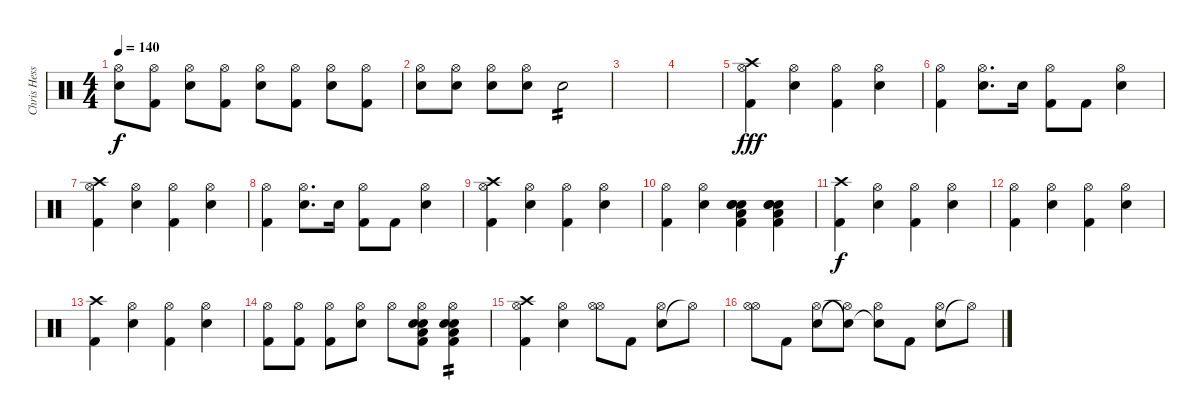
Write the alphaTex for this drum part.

\track ("Chris Hesse" "Chris Hess") {instrument percussion}
\staff {score}
\articulation defaults
\ts (4 4)
\tempo 140
\clef neutral
\ks c
("Electric Snare (hit)" "Hi-Hat (open)").8{dy f} ("Kick (hit) 2" "Hi-Hat (open)").8 ("Electric Snare (hit)" "Hi-Hat (open)").8 ("Kick (hit) 2" "Hi-Hat (open)").8 ("Electric Snare (hit)" "Hi-Hat (open)").8 ("Kick (hit) 2" "Hi-Hat (open)").8 ("Electric Snare (hit)" "Hi-Hat (open)").8 ("Kick (hit) 2" "Hi-Hat (open)").8 |
("Electric Snare (hit)" "Hi-Hat (open)").8 ("Electric Snare (hit)" "Hi-Hat (open)").8 ("Electric Snare (hit)" "Hi-Hat (open)").8 ("Electric Snare (hit)" "Hi-Hat (open)").8 "Electric Snare (hit)".2{tp 2} |
|
|
("Kick (hit) 2" "Hi-Hat (open)" "Crash high (hit)").4{dy fff} ("Electric Snare (hit)" "Hi-Hat (open)").4 ("Kick (hit) 2" "Hi-Hat (open)").4 ("Electric Snare (hit)" "Hi-Hat (open)").4 |
("Kick (hit) 2" "Hi-Hat (open)").4 ("Electric Snare (hit)" "Hi-Hat (open)").8{d} "Electric Snare (hit)".16 ("Kick (hit) 2" "Hi-Hat (open)").8 "Kick (hit) 2".8 ("Electric Snare (hit)" "Hi-Hat (open)").4 |
("Kick (hit) 2" "Hi-Hat (open)" "Crash high (hit)").4 ("Electric Snare (hit)" "Hi-Hat (open)").4 ("Kick (hit) 2" "Hi-Hat (open)").4 ("Electric Snare (hit)" "Hi-Hat (open)").4 |
("Kick (hit) 2" "Hi-Hat (open)").4 ("Electric Snare (hit)" "Hi-Hat (open)").8{d} "Electric Snare (hit)".16 ("Kick (hit) 2" "Hi-Hat (open)").8 "Kick (hit) 2".8 ("Electric Snare (hit)" "Hi-Hat (open)").4 |
("Kick (hit) 2" "Hi-Hat (open)" "Crash high (hit)").4 ("Electric Snare (hit)" "Hi-Hat (open)").4 ("Kick (hit) 2" "Hi-Hat (open)").4 ("Electric Snare (hit)" "Hi-Hat (open)").4 |
("Kick (hit) 2" "Hi-Hat (open)").4 ("Electric Snare (hit)" "Hi-Hat (open)").4 ("Low Floor Tom (hit)" "Electric Snare (hit)" "Electric Snare (hit)" "Electric Snare (hit)" "Kick (hit) 2").4 ("Low Floor Tom (hit)" "Electric Snare (hit)" "Electric Snare (hit)" "Electric Snare (hit)" "Kick (hit) 2").4 |
("Kick (hit) 2" "Crash high (hit)").4{dy f} ("Electric Snare (hit)" "Hi-Hat (open)").4 ("Kick (hit) 2" "Hi-Hat (open)").4 ("Electric Snare (hit)" "Hi-Hat (open)").4 |
("Kick (hit) 2" "Hi-Hat (open)").4 ("Electric Snare (hit)" "Hi-Hat (open)").4 ("Kick (hit) 2" "Hi-Hat (open)").4 ("Electric Snare (hit)" "Hi-Hat (open)").4 |
("Kick (hit) 2" "Crash high (hit)").4 ("Electric Snare (hit)" "Hi-Hat (open)").4 ("Kick (hit) 2" "Hi-Hat (open)").4 ("Electric Snare (hit)" "Hi-Hat (open)").4 |
("Kick (hit) 2" "Hi-Hat (open)").8 ("Kick (hit) 2" "Hi-Hat (open)").8 ("Kick (hit) 2" "Hi-Hat (open)").8 ("Electric Snare (hit)" "Hi-Hat (open)").8 "Hi-Hat (open)".8 ("Electric Snare (hit)" "Low Floor Tom (hit)" "Electric Snare (hit)" "Kick (hit) 2" "Hi-Hat (open)").8 ("Electric Snare (hit)" "Low Floor Tom (hit)" "Electric Snare (hit)" "Kick (hit) 2" "Hi-Hat (open)").4{tp 2} |
("Kick (hit) 2" "Hi-Hat (open)" "Crash high (hit)").4 ("Electric Snare (hit)" "Hi-Hat (open)").4 ("Hi-Hat (open)" "Hi-Hat (open)").8 "Kick (hit) 2".8 ("Electric Snare (hit)" "Hi-Hat (open)").8 "Hi-Hat (open)"{t}.8 |
("Hi-Hat (open)" "Hi-Hat (open)").8 "Kick (hit) 2".8 ("Electric Snare (hit)" "Hi-Hat (open)").8 ("Hi-Hat (open)"{t} "Snare (hit)"{t}).8 ("Hi-Hat (open)" "Snare (hit)"{t}).8 "Kick (hit) 2".8 ("Electric Snare (hit)" "Hi-Hat (open)").8 "Hi-Hat (open)"{t}.8
